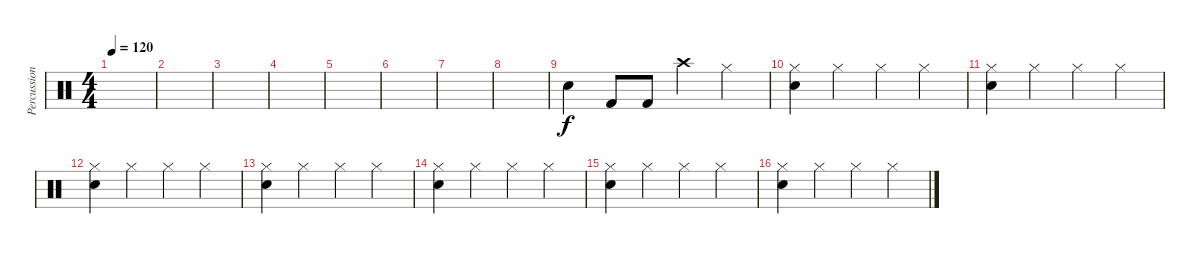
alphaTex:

\track ("Percussion" "Percussion") {instrument percussion}
\staff {score}
\articulation defaults
\ts (4 4)
\tempo 120
\clef neutral
\ks c
|
|
|
|
|
|
|
|
"Snare (hit) 2".4 "Kick (hit) 2".8 "Kick (hit) 2".8 "Crash high (hit)".4 "Hi-Hat (closed)".4 |
("Hi-Hat (closed)" "Snare (hit) 2").4 "Hi-Hat (closed)".4 "Hi-Hat (closed)".4 "Hi-Hat (closed)".4 |
("Hi-Hat (closed)" "Snare (hit) 2").4 "Hi-Hat (closed)".4 "Hi-Hat (closed)".4 "Hi-Hat (closed)".4 |
("Hi-Hat (closed)" "Snare (hit) 2").4 "Hi-Hat (closed)".4 "Hi-Hat (closed)".4 "Hi-Hat (closed)".4 |
("Hi-Hat (closed)" "Snare (hit) 2").4 "Hi-Hat (closed)".4 "Hi-Hat (closed)".4 "Hi-Hat (closed)".4 |
("Hi-Hat (closed)" "Snare (hit) 2").4 "Hi-Hat (closed)".4 "Hi-Hat (closed)".4 "Hi-Hat (closed)".4 |
("Hi-Hat (closed)" "Snare (hit) 2").4 "Hi-Hat (closed)".4 "Hi-Hat (closed)".4 "Hi-Hat (closed)".4 |
("Hi-Hat (closed)" "Snare (hit) 2").4 "Hi-Hat (closed)".4 "Hi-Hat (closed)".4 "Hi-Hat (closed)".4
